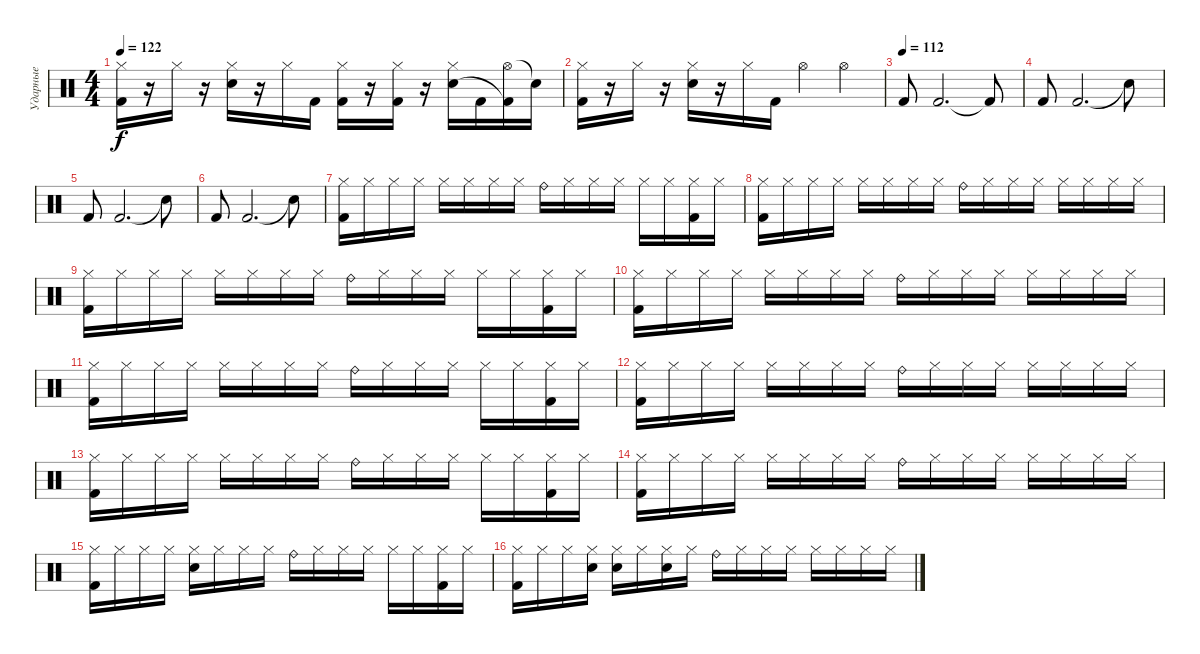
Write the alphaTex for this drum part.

\track ("Ударные" "Ударные") {instrument percussion}
\staff {score}
\articulation defaults
\ts (4 4)
\tempo 122
\clef neutral
\ks c
("Hi-Hat (closed)" "Kick (hit) 2").16{dy f} r.16 "Hi-Hat (closed)".16 r.16 ("Hi-Hat (closed)" "Snare (hit) 2").16 r.16 "Hi-Hat (closed)".16 "Kick (hit) 2".16 ("Hi-Hat (closed)" "Kick (hit) 2").16 r.16 ("Hi-Hat (closed)" "Kick (hit) 2").16 r.16 ("Hi-Hat (closed)" "Snare (hit) 2").16 "Kick (hit) 2".16 ("Hi-Hat (open)" "Kick (hit) 2"{t}).16 "Snare (hit)"{t}.16 |
("Hi-Hat (closed)" "Kick (hit) 2").16 r.16 "Hi-Hat (closed)".16 r.16 ("Hi-Hat (closed)" "Snare (hit) 2").16 r.16 "Hi-Hat (closed)".16 "Kick (hit) 2".16 "Hi-Hat (open)".4 "Hi-Hat (open)".4 |
\tempo (112)
"Kick (hit) 2".8 "Kick (hit) 2".2{d} "Kick (hit) 2"{t}.8 |
"Kick (hit) 2".8 "Kick (hit) 2".2{d} "Snare (hit)"{t}.8 |
"Kick (hit) 2".8 "Kick (hit) 2".2{d} "Snare (hit)"{t}.8 |
"Kick (hit) 2".8 "Kick (hit) 2".2{d} "Snare (hit)"{t}.8 |
("Hi-Hat (closed)" "Kick (hit) 2").16 "Hi-Hat (closed)".16 "Hi-Hat (closed)".16 "Hi-Hat (closed)".16 "Hi-Hat (closed)".16 "Hi-Hat (closed)".16 "Hi-Hat (closed)".16 "Hi-Hat (closed)".16 "Ride (bell)".16 "Hi-Hat (closed)".16 "Hi-Hat (closed)".16 "Hi-Hat (closed)".16 "Hi-Hat (closed)".16 "Hi-Hat (closed)".16 ("Hi-Hat (closed)" "Kick (hit) 2").16 "Hi-Hat (closed)".16 |
("Hi-Hat (closed)" "Kick (hit) 2").16 "Hi-Hat (closed)".16 "Hi-Hat (closed)".16 "Hi-Hat (closed)".16 "Hi-Hat (closed)".16 "Hi-Hat (closed)".16 "Hi-Hat (closed)".16 "Hi-Hat (closed)".16 "Ride (bell)".16 "Hi-Hat (closed)".16 "Hi-Hat (closed)".16 "Hi-Hat (closed)".16 "Hi-Hat (closed)".16 "Hi-Hat (closed)".16 "Hi-Hat (closed)".16 "Hi-Hat (closed)".16 |
("Hi-Hat (closed)" "Kick (hit) 2").16 "Hi-Hat (closed)".16 "Hi-Hat (closed)".16 "Hi-Hat (closed)".16 "Hi-Hat (closed)".16 "Hi-Hat (closed)".16 "Hi-Hat (closed)".16 "Hi-Hat (closed)".16 "Ride (bell)".16 "Hi-Hat (closed)".16 "Hi-Hat (closed)".16 "Hi-Hat (closed)".16 "Hi-Hat (closed)".16 "Hi-Hat (closed)".16 ("Hi-Hat (closed)" "Kick (hit) 2").16 "Hi-Hat (closed)".16 |
("Hi-Hat (closed)" "Kick (hit) 2").16 "Hi-Hat (closed)".16 "Hi-Hat (closed)".16 "Hi-Hat (closed)".16 "Hi-Hat (closed)".16 "Hi-Hat (closed)".16 "Hi-Hat (closed)".16 "Hi-Hat (closed)".16 "Ride (bell)".16 "Hi-Hat (closed)".16 "Hi-Hat (closed)".16 "Hi-Hat (closed)".16 "Hi-Hat (closed)".16 "Hi-Hat (closed)".16 "Hi-Hat (closed)".16 "Hi-Hat (closed)".16 |
("Hi-Hat (closed)" "Kick (hit) 2").16 "Hi-Hat (closed)".16 "Hi-Hat (closed)".16 "Hi-Hat (closed)".16 "Hi-Hat (closed)".16 "Hi-Hat (closed)".16 "Hi-Hat (closed)".16 "Hi-Hat (closed)".16 "Ride (bell)".16 "Hi-Hat (closed)".16 "Hi-Hat (closed)".16 "Hi-Hat (closed)".16 "Hi-Hat (closed)".16 "Hi-Hat (closed)".16 ("Hi-Hat (closed)" "Kick (hit) 2").16 "Hi-Hat (closed)".16 |
("Hi-Hat (closed)" "Kick (hit) 2").16 "Hi-Hat (closed)".16 "Hi-Hat (closed)".16 "Hi-Hat (closed)".16 "Hi-Hat (closed)".16 "Hi-Hat (closed)".16 "Hi-Hat (closed)".16 "Hi-Hat (closed)".16 "Ride (bell)".16 "Hi-Hat (closed)".16 "Hi-Hat (closed)".16 "Hi-Hat (closed)".16 "Hi-Hat (closed)".16 "Hi-Hat (closed)".16 "Hi-Hat (closed)".16 "Hi-Hat (closed)".16 |
("Hi-Hat (closed)" "Kick (hit) 2").16 "Hi-Hat (closed)".16 "Hi-Hat (closed)".16 "Hi-Hat (closed)".16 "Hi-Hat (closed)".16 "Hi-Hat (closed)".16 "Hi-Hat (closed)".16 "Hi-Hat (closed)".16 "Ride (bell)".16 "Hi-Hat (closed)".16 "Hi-Hat (closed)".16 "Hi-Hat (closed)".16 "Hi-Hat (closed)".16 "Hi-Hat (closed)".16 ("Hi-Hat (closed)" "Kick (hit) 2").16 "Hi-Hat (closed)".16 |
("Hi-Hat (closed)" "Kick (hit) 2").16 "Hi-Hat (closed)".16 "Hi-Hat (closed)".16 "Hi-Hat (closed)".16 "Hi-Hat (closed)".16 "Hi-Hat (closed)".16 "Hi-Hat (closed)".16 "Hi-Hat (closed)".16 "Ride (bell)".16 "Hi-Hat (closed)".16 "Hi-Hat (closed)".16 "Hi-Hat (closed)".16 "Hi-Hat (closed)".16 "Hi-Hat (closed)".16 "Hi-Hat (closed)".16 "Hi-Hat (closed)".16 |
("Hi-Hat (closed)" "Kick (hit) 2").16 "Hi-Hat (closed)".16 "Hi-Hat (closed)".16 "Hi-Hat (closed)".16 ("Hi-Hat (closed)" "Snare (hit) 2").16 "Hi-Hat (closed)".16 "Hi-Hat (closed)".16 "Hi-Hat (closed)".16 "Ride (bell)".16 "Hi-Hat (closed)".16 "Hi-Hat (closed)".16 "Hi-Hat (closed)".16 "Hi-Hat (closed)".16 "Hi-Hat (closed)".16 ("Hi-Hat (closed)" "Kick (hit) 2").16 "Hi-Hat (closed)".16 |
("Hi-Hat (closed)" "Kick (hit) 2").16 "Hi-Hat (closed)".16 "Hi-Hat (closed)".16 ("Hi-Hat (closed)" "Snare (hit) 2").16 ("Hi-Hat (closed)" "Snare (hit) 2").16 "Hi-Hat (closed)".16 ("Hi-Hat (closed)" "Snare (hit) 2").16 "Hi-Hat (closed)".16 "Ride (bell)".16 "Hi-Hat (closed)".16 "Hi-Hat (closed)".16 "Hi-Hat (closed)".16 "Hi-Hat (closed)".16 "Hi-Hat (closed)".16 "Hi-Hat (closed)".16 "Hi-Hat (closed)".16
